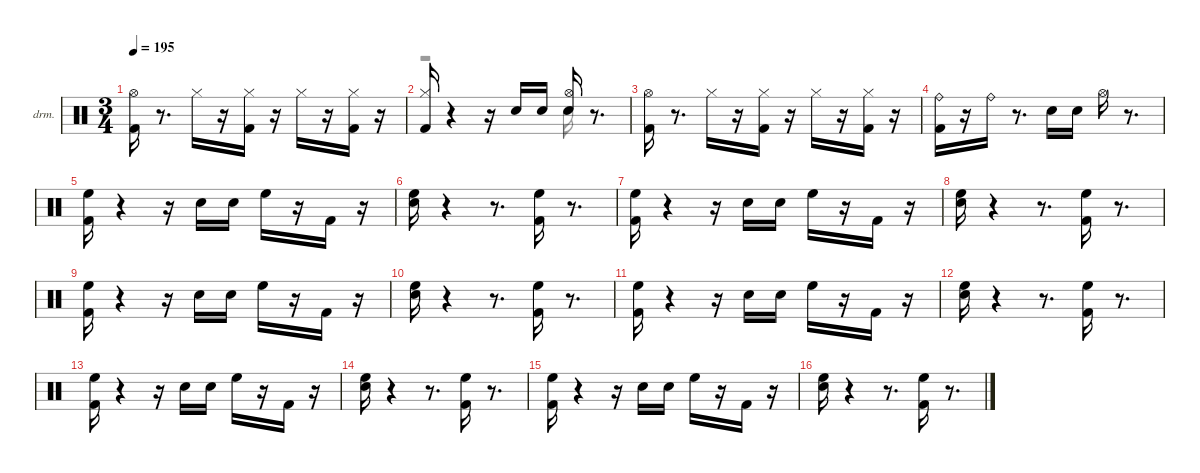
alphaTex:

\hideDynamics
\bracketExtendMode nobrackets
\firstSystemTrackNameOrientation horizontal
\otherSystemsTrackNameOrientation horizontal
\track ("EZdrummer 3" "drm.") {instrument percussion}
\staff {score}
\articulation defaults
\voice
\ts (3 4)
\tempo 195
\clef neutral
\ks aminor
("Kick (hit) 2" "Hi-Hat (open)"{acc #}).16{dy ff beam Down} r.8{d beam Down} "Hi-Hat (closed)"{acc #}.16{dy f beam Down} r.16{beam Down} ("Kick (hit) 2" "Hi-Hat (closed)"{acc #}).16{dy ppp beam Down} r.16{beam Down} "Hi-Hat (closed)"{acc #}.16{dy f beam Down} r.16{beam Down} ("Kick (hit) 2" "Hi-Hat (closed)"{acc #}).16{dy ppp beam Down} r.16{beam Down} |
("Kick (hit) 2" "Hi-Hat (closed)"{acc #}).16{dy ff beam Up} r.4{beam Up} r.16{beam Up} "Snare (hit) 2".16{dy pp beam Up} "Snare (hit) 2".16{dy ppp beam Up} ("Snare (hit) 2" "Hi-Hat (open)"{acc #}).16{dy ff beam Up} r.8{d beam Up} |
("Kick (hit) 2" "Hi-Hat (open)"{acc #}).16{beam Down} r.8{d beam Down} "Hi-Hat (closed)"{acc #}.16{dy f beam Down} r.16{beam Down} ("Kick (hit) 2" "Hi-Hat (closed)"{acc #}).16{beam Down} r.16{beam Down} "Hi-Hat (closed)"{acc #}.16{beam Down} r.16{beam Down} ("Kick (hit) 2" "Hi-Hat (closed)"{acc #}).16{dy mp beam Down} r.16{beam Down} |
("Kick (hit) 2" "Ride (bell)").16{dy ff beam Down} r.16{beam Down} "Ride (bell)".16{dy f beam Down} r.8{d beam Down} "Snare (hit) 2".16{beam Down} "Snare (hit) 2".16{dy mp beam Down} "Hi-Hat (open)"{acc #}.16{dy ff beam Down} r.8{d beam Down} |
("Kick (hit) 2" "High Floor Tom (hit)").16{beam Down} r.4{beam Down} r.16{beam Down} "Snare (hit) 2".16{dy mp beam Down} "Snare (hit) 2".16{dy pp beam Down} "High Floor Tom (hit)".16{dy mf beam Down} r.16{beam Down} "Kick (hit) 2".16{dy f beam Up} r.16{beam Up} |
("Snare (hit) 2" "High Floor Tom (hit)").16{beam Down} r.4{beam Down} r.8{d beam Down} ("Kick (hit) 2" "High Floor Tom (hit)").16{beam Down} r.8{d beam Down} |
("Kick (hit) 2" "High Floor Tom (hit)").16{dy ff beam Down} r.4{beam Down} r.16{beam Down} "Snare (hit) 2".16{dy mp beam Down} "Snare (hit) 2".16{dy pp beam Down} "High Floor Tom (hit)".16{dy mf beam Down} r.16{beam Down} "Kick (hit) 2".16{dy f beam Up} r.16{beam Up} |
("Snare (hit) 2" "High Floor Tom (hit)").16{dy ff beam Down} r.4{beam Down} r.8{d beam Down} ("Kick (hit) 2" "High Floor Tom (hit)").16{dy mf beam Down} r.8{d beam Down} |
("Kick (hit) 2" "High Floor Tom (hit)").16{dy ff beam Down} r.4{beam Down} r.16{beam Down} "Snare (hit) 2".16{dy mp beam Down} "Snare (hit) 2".16{dy pp beam Down} "High Floor Tom (hit)".16{dy mf beam Down} r.16{beam Down} "Kick (hit) 2".16{dy f beam Up} r.16{beam Up} |
("Snare (hit) 2" "High Floor Tom (hit)").16{dy ff beam Down} r.4{beam Down} r.8{d beam Down} ("Kick (hit) 2" "High Floor Tom (hit)").16{dy f beam Down} r.8{d beam Down} |
("Kick (hit) 2" "High Floor Tom (hit)").16{dy ff beam Down} r.4{beam Down} r.16{beam Down} "Snare (hit) 2".16{dy mp beam Down} "Snare (hit) 2".16{dy pp beam Down} "High Floor Tom (hit)".16{dy mf beam Down} r.16{beam Down} "Kick (hit) 2".16{dy f beam Up} r.16{beam Up} |
("Snare (hit) 2" "High Floor Tom (hit)").16{beam Down} r.4{beam Down} r.8{d beam Down} ("Kick (hit) 2" "High Floor Tom (hit)").16{dy mf beam Down} r.8{d beam Down} |
("Kick (hit) 2" "High Floor Tom (hit)").16{dy ff beam Down} r.4{beam Down} r.16{beam Down} "Snare (hit) 2".16{dy mp beam Down} "Snare (hit) 2".16{dy pp beam Down} "High Floor Tom (hit)".16{dy mf beam Down} r.16{beam Down} "Kick (hit) 2".16{dy f beam Up} r.16{beam Up} |
("Snare (hit) 2" "High Floor Tom (hit)").16{beam Down} r.4{beam Down} r.8{d beam Down} ("Kick (hit) 2" "High Floor Tom (hit)").16{beam Down} r.8{d beam Down} |
("Kick (hit) 2" "High Floor Tom (hit)").16{dy ff beam Down} r.4{beam Down} r.16{beam Down} "Snare (hit) 2".16{dy mp beam Down} "Snare (hit) 2".16{dy pp beam Down} "High Floor Tom (hit)".16{dy mf beam Down} r.16{beam Down} "Kick (hit) 2".16{dy f beam Up} r.16{beam Up} |
("Snare (hit) 2" "High Floor Tom (hit)").16{dy ff beam Down} r.4{beam Down} r.8{d beam Down} ("Kick (hit) 2" "High Floor Tom (hit)").16{dy mf beam Down} r.8{d beam Down}
\voice
\clef neutral
\ottava regular
\simile none
\ks aminor
|
r.2{beam Down} "Snare (hit) 2".16{beam Down} |
|
|
|
|
|
|
|
|
|
|
|
|
|
